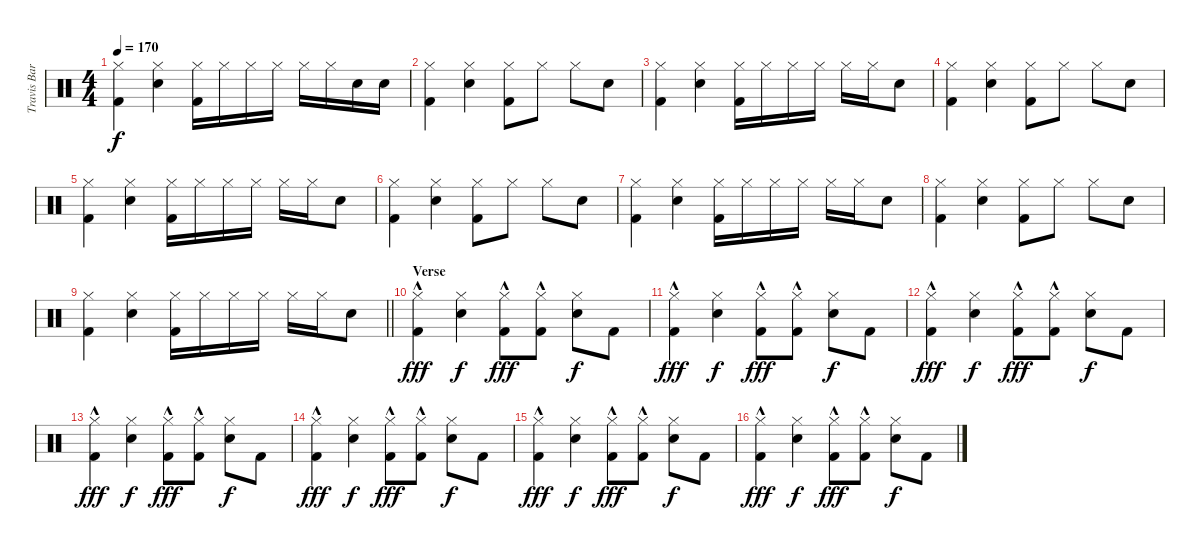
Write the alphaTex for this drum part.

\track ("Travis Barker" "Travis Bar") {instrument percussion}
\staff {score}
\articulation defaults
\ts (4 4)
\tempo 170
\clef neutral
\ks c
("Kick (hit) 2" "Hi-Hat (closed)").4{dy f} ("Snare (hit) 2" "Hi-Hat (closed)").4 ("Kick (hit) 2" "Hi-Hat (closed)").16 "Hi-Hat (closed)".16 "Hi-Hat (closed)".16 "Hi-Hat (closed)".16 "Hi-Hat (closed)".16 "Hi-Hat (closed)".16 "Snare (hit) 2".16 "Snare (hit) 2".16 |
("Kick (hit) 2" "Hi-Hat (closed)").4 ("Snare (hit) 2" "Hi-Hat (closed)").4 ("Hi-Hat (closed)" "Kick (hit) 2").8 "Hi-Hat (closed)".8 "Hi-Hat (closed)".8 "Snare (hit) 2".8 |
("Kick (hit) 2" "Hi-Hat (closed)").4 ("Snare (hit) 2" "Hi-Hat (closed)").4 ("Kick (hit) 2" "Hi-Hat (closed)").16 "Hi-Hat (closed)".16 "Hi-Hat (closed)".16 "Hi-Hat (closed)".16 "Hi-Hat (closed)".16 "Hi-Hat (closed)".16 "Snare (hit) 2".8 |
("Kick (hit) 2" "Hi-Hat (closed)").4 ("Snare (hit) 2" "Hi-Hat (closed)").4 ("Hi-Hat (closed)" "Kick (hit) 2").8 "Hi-Hat (closed)".8 "Hi-Hat (closed)".8 "Snare (hit) 2".8 |
("Kick (hit) 2" "Hi-Hat (closed)").4 ("Snare (hit) 2" "Hi-Hat (closed)").4 ("Kick (hit) 2" "Hi-Hat (closed)").16 "Hi-Hat (closed)".16 "Hi-Hat (closed)".16 "Hi-Hat (closed)".16 "Hi-Hat (closed)".16 "Hi-Hat (closed)".16 "Snare (hit) 2".8 |
("Kick (hit) 2" "Hi-Hat (closed)").4 ("Snare (hit) 2" "Hi-Hat (closed)").4 ("Hi-Hat (closed)" "Kick (hit) 2").8 "Hi-Hat (closed)".8 "Hi-Hat (closed)".8 "Snare (hit) 2".8 |
("Kick (hit) 2" "Hi-Hat (closed)").4 ("Snare (hit) 2" "Hi-Hat (closed)").4 ("Kick (hit) 2" "Hi-Hat (closed)").16 "Hi-Hat (closed)".16 "Hi-Hat (closed)".16 "Hi-Hat (closed)".16 "Hi-Hat (closed)".16 "Hi-Hat (closed)".16 "Snare (hit) 2".8 |
("Kick (hit) 2" "Hi-Hat (closed)").4 ("Snare (hit) 2" "Hi-Hat (closed)").4 ("Hi-Hat (closed)" "Kick (hit) 2").8 "Hi-Hat (closed)".8 "Hi-Hat (closed)".8 "Snare (hit) 2".8 |
\barLineRight lightlight
("Kick (hit) 2" "Hi-Hat (closed)").4 ("Snare (hit) 2" "Hi-Hat (closed)").4 ("Kick (hit) 2" "Hi-Hat (closed)").16 "Hi-Hat (closed)".16 "Hi-Hat (closed)".16 "Hi-Hat (closed)".16 "Hi-Hat (closed)".16 "Hi-Hat (closed)".16 "Snare (hit) 2".8 |
\section ("" "Verse")
("Hi-Hat (closed)" "Kick (hit) 2"{hac}).4{dy fff} ("Hi-Hat (closed)" "Snare (hit) 2").4{dy f} ("Hi-Hat (closed)" "Kick (hit) 2"{hac}).8{dy fff} ("Hi-Hat (closed)" "Kick (hit) 2"{hac}).8 ("Hi-Hat (closed)" "Snare (hit) 2").8{dy f} "Kick (hit) 2".8 |
("Hi-Hat (closed)" "Kick (hit) 2"{hac}).4{dy fff} ("Hi-Hat (closed)" "Snare (hit) 2").4{dy f} ("Hi-Hat (closed)" "Kick (hit) 2"{hac}).8{dy fff} ("Hi-Hat (closed)" "Kick (hit) 2"{hac}).8 ("Hi-Hat (closed)" "Snare (hit) 2").8{dy f} "Kick (hit) 2".8 |
("Hi-Hat (closed)" "Kick (hit) 2"{hac}).4{dy fff} ("Hi-Hat (closed)" "Snare (hit) 2").4{dy f} ("Hi-Hat (closed)" "Kick (hit) 2"{hac}).8{dy fff} ("Hi-Hat (closed)" "Kick (hit) 2"{hac}).8 ("Hi-Hat (closed)" "Snare (hit) 2").8{dy f} "Kick (hit) 2".8 |
("Hi-Hat (closed)" "Kick (hit) 2"{hac}).4{dy fff} ("Hi-Hat (closed)" "Snare (hit) 2").4{dy f} ("Hi-Hat (closed)" "Kick (hit) 2"{hac}).8{dy fff} ("Hi-Hat (closed)" "Kick (hit) 2"{hac}).8 ("Hi-Hat (closed)" "Snare (hit) 2").8{dy f} "Kick (hit) 2".8 |
("Hi-Hat (closed)" "Kick (hit) 2"{hac}).4{dy fff} ("Hi-Hat (closed)" "Snare (hit) 2").4{dy f} ("Hi-Hat (closed)" "Kick (hit) 2"{hac}).8{dy fff} ("Hi-Hat (closed)" "Kick (hit) 2"{hac}).8 ("Hi-Hat (closed)" "Snare (hit) 2").8{dy f} "Kick (hit) 2".8 |
("Hi-Hat (closed)" "Kick (hit) 2"{hac}).4{dy fff} ("Hi-Hat (closed)" "Snare (hit) 2").4{dy f} ("Hi-Hat (closed)" "Kick (hit) 2"{hac}).8{dy fff} ("Hi-Hat (closed)" "Kick (hit) 2"{hac}).8 ("Hi-Hat (closed)" "Snare (hit) 2").8{dy f} "Kick (hit) 2".8 |
("Hi-Hat (closed)" "Kick (hit) 2"{hac}).4{dy fff} ("Hi-Hat (closed)" "Snare (hit) 2").4{dy f} ("Hi-Hat (closed)" "Kick (hit) 2"{hac}).8{dy fff} ("Hi-Hat (closed)" "Kick (hit) 2"{hac}).8 ("Hi-Hat (closed)" "Snare (hit) 2").8{dy f} "Kick (hit) 2".8
